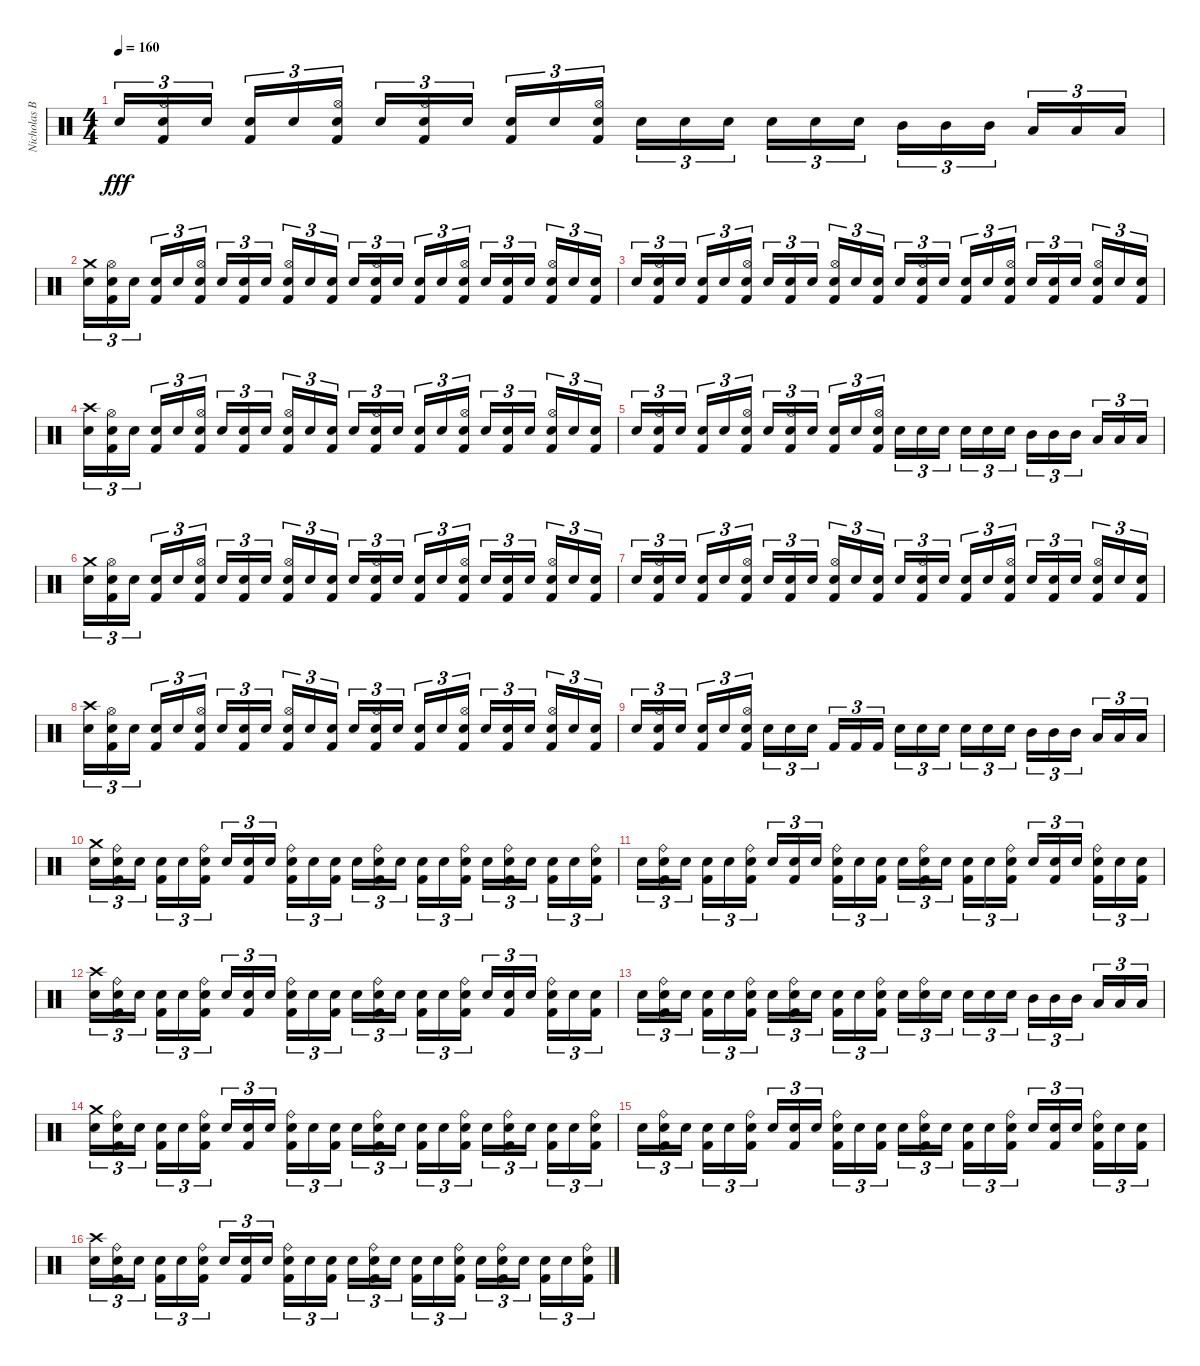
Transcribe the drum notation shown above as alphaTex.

\track ("Nicholas Barker" "Nicholas B") {instrument percussion}
\staff {score}
\articulation defaults
\ts (4 4)
\tempo 160
\clef neutral
\ks c "Snare (hit) 2".16{tu (3 2) dy fff}
("Hi-Hat (open)" "Snare (hit) 2" "Kick (hit) 2").16{tu (3 2)} "Snare (hit) 2".16{tu (3 2) beam splitsecondary} ("Snare (hit) 2" "Kick (hit) 2").16{tu (3 2)} "Snare (hit) 2".16{tu (3 2)} ("Hi-Hat (open)" "Snare (hit) 2" "Kick (hit) 2").16{tu (3 2)} "Snare (hit) 2".16{tu (3 2)} ("Hi-Hat (open)" "Snare (hit) 2" "Kick (hit) 2").16{tu (3 2)} "Snare (hit) 2".16{tu (3 2) beam splitsecondary} ("Snare (hit) 2" "Kick (hit) 2").16{tu (3 2)} "Snare (hit) 2".16{tu (3 2)} ("Hi-Hat (open)" "Snare (hit) 2" "Kick (hit) 2").16{tu (3 2)} "Snare (hit) 2".16{tu (3 2)} "Snare (hit) 2".16{tu (3 2)} "Snare (hit) 2".16{tu (3 2) beam splitsecondary} "Snare (hit) 2".16{tu (3 2)} "Snare (hit) 2".16{tu (3 2)} "Snare (hit) 2".16{tu (3 2)} "Mid Tom (hit)".16{tu (3 2)} "Mid Tom (hit)".16{tu (3 2)} "Mid Tom (hit)".16{tu (3 2) beam splitsecondary} "Low Tom (hit)".16{tu (3 2)} "Low Tom (hit)".16{tu (3 2)} "Low Tom (hit)".16{tu (3 2)} |
("Crash medium (hit)" "Snare (hit) 2").16{tu (3 2)} ("Hi-Hat (open)" "Snare (hit) 2" "Kick (hit) 2").16{tu (3 2)} "Snare (hit) 2".16{tu (3 2) beam splitsecondary} ("Snare (hit) 2" "Kick (hit) 2").16{tu (3 2)} "Snare (hit) 2".16{tu (3 2)} ("Hi-Hat (open)" "Snare (hit) 2" "Kick (hit) 2").16{tu (3 2)} "Snare (hit) 2".16{tu (3 2)} ("Snare (hit) 2" "Kick (hit) 2").16{tu (3 2)} "Snare (hit) 2".16{tu (3 2) beam splitsecondary} ("Hi-Hat (open)" "Snare (hit) 2" "Kick (hit) 2").16{tu (3 2)} "Snare (hit) 2".16{tu (3 2)} ("Snare (hit) 2" "Kick (hit) 2").16{tu (3 2)} "Snare (hit) 2".16{tu (3 2)} ("Hi-Hat (open)" "Snare (hit) 2" "Kick (hit) 2").16{tu (3 2)} "Snare (hit) 2".16{tu (3 2) beam splitsecondary} ("Snare (hit) 2" "Kick (hit) 2").16{tu (3 2)} "Snare (hit) 2".16{tu (3 2)} ("Hi-Hat (open)" "Snare (hit) 2" "Kick (hit) 2").16{tu (3 2)} "Snare (hit) 2".16{tu (3 2)} ("Snare (hit) 2" "Kick (hit) 2").16{tu (3 2)} "Snare (hit) 2".16{tu (3 2) beam splitsecondary} ("Hi-Hat (open)" "Snare (hit) 2" "Kick (hit) 2").16{tu (3 2)} "Snare (hit) 2".16{tu (3 2)} ("Snare (hit) 2" "Kick (hit) 2").16{tu (3 2)} |
"Snare (hit) 2".16{tu (3 2)} ("Hi-Hat (open)" "Snare (hit) 2" "Kick (hit) 2").16{tu (3 2)} "Snare (hit) 2".16{tu (3 2) beam splitsecondary} ("Snare (hit) 2" "Kick (hit) 2").16{tu (3 2)} "Snare (hit) 2".16{tu (3 2)} ("Hi-Hat (open)" "Snare (hit) 2" "Kick (hit) 2").16{tu (3 2)} "Snare (hit) 2".16{tu (3 2)} ("Snare (hit) 2" "Kick (hit) 2").16{tu (3 2)} "Snare (hit) 2".16{tu (3 2) beam splitsecondary} ("Hi-Hat (open)" "Snare (hit) 2" "Kick (hit) 2").16{tu (3 2)} "Snare (hit) 2".16{tu (3 2)} ("Snare (hit) 2" "Kick (hit) 2").16{tu (3 2)} "Snare (hit) 2".16{tu (3 2)} ("Hi-Hat (open)" "Snare (hit) 2" "Kick (hit) 2").16{tu (3 2)} "Snare (hit) 2".16{tu (3 2) beam splitsecondary} ("Snare (hit) 2" "Kick (hit) 2").16{tu (3 2)} "Snare (hit) 2".16{tu (3 2)} ("Hi-Hat (open)" "Snare (hit) 2" "Kick (hit) 2").16{tu (3 2)} "Snare (hit) 2".16{tu (3 2)} ("Snare (hit) 2" "Kick (hit) 2").16{tu (3 2)} "Snare (hit) 2".16{tu (3 2) beam splitsecondary} ("Hi-Hat (open)" "Snare (hit) 2" "Kick (hit) 2").16{tu (3 2)} "Snare (hit) 2".16{tu (3 2)} ("Snare (hit) 2" "Kick (hit) 2").16{tu (3 2)} |
("Crash high (hit)" "Snare (hit) 2").16{tu (3 2)} ("Hi-Hat (open)" "Snare (hit) 2" "Kick (hit) 2").16{tu (3 2)} "Snare (hit) 2".16{tu (3 2) beam splitsecondary} ("Snare (hit) 2" "Kick (hit) 2").16{tu (3 2)} "Snare (hit) 2".16{tu (3 2)} ("Hi-Hat (open)" "Snare (hit) 2" "Kick (hit) 2").16{tu (3 2)} "Snare (hit) 2".16{tu (3 2)} ("Snare (hit) 2" "Kick (hit) 2").16{tu (3 2)} "Snare (hit) 2".16{tu (3 2) beam splitsecondary} ("Hi-Hat (open)" "Snare (hit) 2" "Kick (hit) 2").16{tu (3 2)} "Snare (hit) 2".16{tu (3 2)} ("Snare (hit) 2" "Kick (hit) 2").16{tu (3 2)} "Snare (hit) 2".16{tu (3 2)} ("Hi-Hat (open)" "Snare (hit) 2" "Kick (hit) 2").16{tu (3 2)} "Snare (hit) 2".16{tu (3 2) beam splitsecondary} ("Snare (hit) 2" "Kick (hit) 2").16{tu (3 2)} "Snare (hit) 2".16{tu (3 2)} ("Hi-Hat (open)" "Snare (hit) 2" "Kick (hit) 2").16{tu (3 2)} "Snare (hit) 2".16{tu (3 2)} ("Snare (hit) 2" "Kick (hit) 2").16{tu (3 2)} "Snare (hit) 2".16{tu (3 2) beam splitsecondary} ("Hi-Hat (open)" "Snare (hit) 2" "Kick (hit) 2").16{tu (3 2)} "Snare (hit) 2".16{tu (3 2)} ("Snare (hit) 2" "Kick (hit) 2").16{tu (3 2)} |
"Snare (hit) 2".16{tu (3 2)} ("Hi-Hat (open)" "Snare (hit) 2" "Kick (hit) 2").16{tu (3 2)} "Snare (hit) 2".16{tu (3 2) beam splitsecondary} ("Snare (hit) 2" "Kick (hit) 2").16{tu (3 2)} "Snare (hit) 2".16{tu (3 2)} ("Hi-Hat (open)" "Snare (hit) 2" "Kick (hit) 2").16{tu (3 2)} "Snare (hit) 2".16{tu (3 2)} ("Hi-Hat (open)" "Snare (hit) 2" "Kick (hit) 2").16{tu (3 2)} "Snare (hit) 2".16{tu (3 2) beam splitsecondary} ("Snare (hit) 2" "Kick (hit) 2").16{tu (3 2)} "Snare (hit) 2".16{tu (3 2)} ("Hi-Hat (open)" "Snare (hit) 2" "Kick (hit) 2").16{tu (3 2)} "Snare (hit) 2".16{tu (3 2)} "Snare (hit) 2".16{tu (3 2)} "Snare (hit) 2".16{tu (3 2) beam splitsecondary} "Snare (hit) 2".16{tu (3 2)} "Snare (hit) 2".16{tu (3 2)} "Snare (hit) 2".16{tu (3 2)} "Mid Tom (hit)".16{tu (3 2)} "Mid Tom (hit)".16{tu (3 2)} "Mid Tom (hit)".16{tu (3 2) beam splitsecondary} "Low Tom (hit)".16{tu (3 2)} "Low Tom (hit)".16{tu (3 2)} "Low Tom (hit)".16{tu (3 2)} |
("Crash medium (hit)" "Snare (hit) 2").16{tu (3 2)} ("Hi-Hat (open)" "Snare (hit) 2" "Kick (hit) 2").16{tu (3 2)} "Snare (hit) 2".16{tu (3 2) beam splitsecondary} ("Snare (hit) 2" "Kick (hit) 2").16{tu (3 2)} "Snare (hit) 2".16{tu (3 2)} ("Hi-Hat (open)" "Snare (hit) 2" "Kick (hit) 2").16{tu (3 2)} "Snare (hit) 2".16{tu (3 2)} ("Snare (hit) 2" "Kick (hit) 2").16{tu (3 2)} "Snare (hit) 2".16{tu (3 2) beam splitsecondary} ("Hi-Hat (open)" "Snare (hit) 2" "Kick (hit) 2").16{tu (3 2)} "Snare (hit) 2".16{tu (3 2)} ("Snare (hit) 2" "Kick (hit) 2").16{tu (3 2)} "Snare (hit) 2".16{tu (3 2)} ("Hi-Hat (open)" "Snare (hit) 2" "Kick (hit) 2").16{tu (3 2)} "Snare (hit) 2".16{tu (3 2) beam splitsecondary} ("Snare (hit) 2" "Kick (hit) 2").16{tu (3 2)} "Snare (hit) 2".16{tu (3 2)} ("Hi-Hat (open)" "Snare (hit) 2" "Kick (hit) 2").16{tu (3 2)} "Snare (hit) 2".16{tu (3 2)} ("Snare (hit) 2" "Kick (hit) 2").16{tu (3 2)} "Snare (hit) 2".16{tu (3 2) beam splitsecondary} ("Hi-Hat (open)" "Snare (hit) 2" "Kick (hit) 2").16{tu (3 2)} "Snare (hit) 2".16{tu (3 2)} ("Snare (hit) 2" "Kick (hit) 2").16{tu (3 2)} |
"Snare (hit) 2".16{tu (3 2)} ("Hi-Hat (open)" "Snare (hit) 2" "Kick (hit) 2").16{tu (3 2)} "Snare (hit) 2".16{tu (3 2) beam splitsecondary} ("Snare (hit) 2" "Kick (hit) 2").16{tu (3 2)} "Snare (hit) 2".16{tu (3 2)} ("Hi-Hat (open)" "Snare (hit) 2" "Kick (hit) 2").16{tu (3 2)} "Snare (hit) 2".16{tu (3 2)} ("Snare (hit) 2" "Kick (hit) 2").16{tu (3 2)} "Snare (hit) 2".16{tu (3 2) beam splitsecondary} ("Hi-Hat (open)" "Snare (hit) 2" "Kick (hit) 2").16{tu (3 2)} "Snare (hit) 2".16{tu (3 2)} ("Snare (hit) 2" "Kick (hit) 2").16{tu (3 2)} "Snare (hit) 2".16{tu (3 2)} ("Hi-Hat (open)" "Snare (hit) 2" "Kick (hit) 2").16{tu (3 2)} "Snare (hit) 2".16{tu (3 2) beam splitsecondary} ("Snare (hit) 2" "Kick (hit) 2").16{tu (3 2)} "Snare (hit) 2".16{tu (3 2)} ("Hi-Hat (open)" "Snare (hit) 2" "Kick (hit) 2").16{tu (3 2)} "Snare (hit) 2".16{tu (3 2)} ("Snare (hit) 2" "Kick (hit) 2").16{tu (3 2)} "Snare (hit) 2".16{tu (3 2) beam splitsecondary} ("Hi-Hat (open)" "Snare (hit) 2" "Kick (hit) 2").16{tu (3 2)} "Snare (hit) 2".16{tu (3 2)} ("Snare (hit) 2" "Kick (hit) 2").16{tu (3 2)} |
("Crash high (hit)" "Snare (hit) 2").16{tu (3 2)} ("Hi-Hat (open)" "Snare (hit) 2" "Kick (hit) 2").16{tu (3 2)} "Snare (hit) 2".16{tu (3 2) beam splitsecondary} ("Snare (hit) 2" "Kick (hit) 2").16{tu (3 2)} "Snare (hit) 2".16{tu (3 2)} ("Hi-Hat (open)" "Snare (hit) 2" "Kick (hit) 2").16{tu (3 2)} "Snare (hit) 2".16{tu (3 2)} ("Snare (hit) 2" "Kick (hit) 2").16{tu (3 2)} "Snare (hit) 2".16{tu (3 2) beam splitsecondary} ("Hi-Hat (open)" "Snare (hit) 2" "Kick (hit) 2").16{tu (3 2)} "Snare (hit) 2".16{tu (3 2)} ("Snare (hit) 2" "Kick (hit) 2").16{tu (3 2)} "Snare (hit) 2".16{tu (3 2)} ("Hi-Hat (open)" "Snare (hit) 2" "Kick (hit) 2").16{tu (3 2)} "Snare (hit) 2".16{tu (3 2) beam splitsecondary} ("Snare (hit) 2" "Kick (hit) 2").16{tu (3 2)} "Snare (hit) 2".16{tu (3 2)} ("Hi-Hat (open)" "Snare (hit) 2" "Kick (hit) 2").16{tu (3 2)} "Snare (hit) 2".16{tu (3 2)} ("Snare (hit) 2" "Kick (hit) 2").16{tu (3 2)} "Snare (hit) 2".16{tu (3 2) beam splitsecondary} ("Hi-Hat (open)" "Snare (hit) 2" "Kick (hit) 2").16{tu (3 2)} "Snare (hit) 2".16{tu (3 2)} ("Snare (hit) 2" "Kick (hit) 2").16{tu (3 2)} |
"Snare (hit) 2".16{tu (3 2)} ("Hi-Hat (open)" "Snare (hit) 2" "Kick (hit) 2").16{tu (3 2)} "Snare (hit) 2".16{tu (3 2) beam splitsecondary} ("Snare (hit) 2" "Kick (hit) 2").16{tu (3 2)} "Snare (hit) 2".16{tu (3 2)} ("Hi-Hat (open)" "Snare (hit) 2" "Kick (hit) 2").16{tu (3 2)} "Snare (hit) 2".16{tu (3 2)} "Snare (hit) 2".16{tu (3 2)} "Snare (hit) 2".16{tu (3 2) beam splitsecondary} "Kick (hit) 2".16{tu (3 2)} "Kick (hit) 2".16{tu (3 2)} "Kick (hit) 2".16{tu (3 2)} "Snare (hit) 2".16{tu (3 2)} "Snare (hit) 2".16{tu (3 2)} "Snare (hit) 2".16{tu (3 2) beam splitsecondary} "Snare (hit) 2".16{tu (3 2)} "Snare (hit) 2".16{tu (3 2)} "Snare (hit) 2".16{tu (3 2)} "Mid Tom (hit)".16{tu (3 2)} "Mid Tom (hit)".16{tu (3 2)} "Mid Tom (hit)".16{tu (3 2) beam splitsecondary} "Low Tom (hit)".16{tu (3 2)} "Low Tom (hit)".16{tu (3 2)} "Low Tom (hit)".16{tu (3 2)} |
("Crash medium (hit)" "Snare (hit) 2").16{tu (3 2)} ("Ride (bell)" "Snare (hit) 2" "Kick (hit) 2").16{tu (3 2)} "Snare (hit) 2".16{tu (3 2) beam splitsecondary} ("Snare (hit) 2" "Kick (hit) 2").16{tu (3 2)} "Snare (hit) 2".16{tu (3 2)} ("Ride (bell)" "Snare (hit) 2" "Kick (hit) 2").16{tu (3 2)} "Snare (hit) 2".16{tu (3 2)} ("Snare (hit) 2" "Kick (hit) 2").16{tu (3 2)} "Snare (hit) 2".16{tu (3 2) beam splitsecondary} ("Ride (bell)" "Snare (hit) 2" "Kick (hit) 2").16{tu (3 2)} "Snare (hit) 2".16{tu (3 2)} ("Snare (hit) 2" "Kick (hit) 2").16{tu (3 2)} "Snare (hit) 2".16{tu (3 2)} ("Ride (bell)" "Snare (hit) 2" "Kick (hit) 2").16{tu (3 2)} "Snare (hit) 2".16{tu (3 2) beam splitsecondary} ("Snare (hit) 2" "Kick (hit) 2").16{tu (3 2)} "Snare (hit) 2".16{tu (3 2)} ("Ride (bell)" "Snare (hit) 2" "Kick (hit) 2").16{tu (3 2)} "Snare (hit) 2".16{tu (3 2)} ("Ride (bell)" "Snare (hit) 2" "Kick (hit) 2").16{tu (3 2)} "Snare (hit) 2".16{tu (3 2) beam splitsecondary} ("Snare (hit) 2" "Kick (hit) 2").16{tu (3 2)} "Snare (hit) 2".16{tu (3 2)} ("Ride (bell)" "Snare (hit) 2" "Kick (hit) 2").16{tu (3 2)} |
"Snare (hit) 2".16{tu (3 2)} ("Ride (bell)" "Snare (hit) 2" "Kick (hit) 2").16{tu (3 2)} "Snare (hit) 2".16{tu (3 2) beam splitsecondary} ("Snare (hit) 2" "Kick (hit) 2").16{tu (3 2)} "Snare (hit) 2".16{tu (3 2)} ("Ride (bell)" "Snare (hit) 2" "Kick (hit) 2").16{tu (3 2)} "Snare (hit) 2".16{tu (3 2)} ("Snare (hit) 2" "Kick (hit) 2").16{tu (3 2)} "Snare (hit) 2".16{tu (3 2) beam splitsecondary} ("Ride (bell)" "Snare (hit) 2" "Kick (hit) 2").16{tu (3 2)} "Snare (hit) 2".16{tu (3 2)} ("Snare (hit) 2" "Kick (hit) 2").16{tu (3 2)} "Snare (hit) 2".16{tu (3 2)} ("Ride (bell)" "Snare (hit) 2" "Kick (hit) 2").16{tu (3 2)} "Snare (hit) 2".16{tu (3 2) beam splitsecondary} ("Snare (hit) 2" "Kick (hit) 2").16{tu (3 2)} "Snare (hit) 2".16{tu (3 2)} ("Ride (bell)" "Snare (hit) 2" "Kick (hit) 2").16{tu (3 2)} "Snare (hit) 2".16{tu (3 2)} ("Snare (hit) 2" "Kick (hit) 2").16{tu (3 2)} "Snare (hit) 2".16{tu (3 2) beam splitsecondary} ("Ride (bell)" "Snare (hit) 2" "Kick (hit) 2").16{tu (3 2)} "Snare (hit) 2".16{tu (3 2)} ("Snare (hit) 2" "Kick (hit) 2").16{tu (3 2)} |
("Crash high (hit)" "Snare (hit) 2").16{tu (3 2)} ("Ride (bell)" "Snare (hit) 2" "Kick (hit) 2").16{tu (3 2)} "Snare (hit) 2".16{tu (3 2) beam splitsecondary} ("Snare (hit) 2" "Kick (hit) 2").16{tu (3 2)} "Snare (hit) 2".16{tu (3 2)} ("Ride (bell)" "Snare (hit) 2" "Kick (hit) 2").16{tu (3 2)} "Snare (hit) 2".16{tu (3 2)} ("Snare (hit) 2" "Kick (hit) 2").16{tu (3 2)} "Snare (hit) 2".16{tu (3 2) beam splitsecondary} ("Ride (bell)" "Snare (hit) 2" "Kick (hit) 2").16{tu (3 2)} "Snare (hit) 2".16{tu (3 2)} ("Snare (hit) 2" "Kick (hit) 2").16{tu (3 2)} "Snare (hit) 2".16{tu (3 2)} ("Ride (bell)" "Snare (hit) 2" "Kick (hit) 2").16{tu (3 2)} "Snare (hit) 2".16{tu (3 2) beam splitsecondary} ("Snare (hit) 2" "Kick (hit) 2").16{tu (3 2)} "Snare (hit) 2".16{tu (3 2)} ("Ride (bell)" "Snare (hit) 2" "Kick (hit) 2").16{tu (3 2)} "Snare (hit) 2".16{tu (3 2)} ("Snare (hit) 2" "Kick (hit) 2").16{tu (3 2)} "Snare (hit) 2".16{tu (3 2) beam splitsecondary} ("Ride (bell)" "Snare (hit) 2" "Kick (hit) 2").16{tu (3 2)} "Snare (hit) 2".16{tu (3 2)} ("Snare (hit) 2" "Kick (hit) 2").16{tu (3 2)} |
"Snare (hit) 2".16{tu (3 2)} ("Ride (bell)" "Snare (hit) 2" "Kick (hit) 2").16{tu (3 2)} "Snare (hit) 2".16{tu (3 2) beam splitsecondary} ("Snare (hit) 2" "Kick (hit) 2").16{tu (3 2)} "Snare (hit) 2".16{tu (3 2)} ("Ride (bell)" "Snare (hit) 2" "Kick (hit) 2").16{tu (3 2)} "Snare (hit) 2".16{tu (3 2)} ("Ride (bell)" "Snare (hit) 2" "Kick (hit) 2").16{tu (3 2)} "Snare (hit) 2".16{tu (3 2) beam splitsecondary} ("Snare (hit) 2" "Kick (hit) 2").16{tu (3 2)} "Snare (hit) 2".16{tu (3 2)} ("Ride (bell)" "Snare (hit) 2" "Kick (hit) 2").16{tu (3 2)} "Snare (hit) 2".16{tu (3 2)} ("Ride (bell)" "Snare (hit) 2").16{tu (3 2)} "Snare (hit) 2".16{tu (3 2) beam splitsecondary} "Snare (hit) 2".16{tu (3 2)} "Snare (hit) 2".16{tu (3 2)} "Snare (hit) 2".16{tu (3 2)} "Mid Tom (hit)".16{tu (3 2)} "Mid Tom (hit)".16{tu (3 2)} "Mid Tom (hit)".16{tu (3 2) beam splitsecondary} "Low Tom (hit)".16{tu (3 2)} "Low Tom (hit)".16{tu (3 2)} "Low Tom (hit)".16{tu (3 2)} |
("Crash medium (hit)" "Snare (hit) 2").16{tu (3 2)} ("Ride (bell)" "Snare (hit) 2" "Kick (hit) 2").16{tu (3 2)} "Snare (hit) 2".16{tu (3 2) beam splitsecondary} ("Snare (hit) 2" "Kick (hit) 2").16{tu (3 2)} "Snare (hit) 2".16{tu (3 2)} ("Ride (bell)" "Snare (hit) 2" "Kick (hit) 2").16{tu (3 2)} "Snare (hit) 2".16{tu (3 2)} ("Snare (hit) 2" "Kick (hit) 2").16{tu (3 2)} "Snare (hit) 2".16{tu (3 2) beam splitsecondary} ("Ride (bell)" "Snare (hit) 2" "Kick (hit) 2").16{tu (3 2)} "Snare (hit) 2".16{tu (3 2)} ("Snare (hit) 2" "Kick (hit) 2").16{tu (3 2)} "Snare (hit) 2".16{tu (3 2)} ("Ride (bell)" "Snare (hit) 2" "Kick (hit) 2").16{tu (3 2)} "Snare (hit) 2".16{tu (3 2) beam splitsecondary} ("Snare (hit) 2" "Kick (hit) 2").16{tu (3 2)} "Snare (hit) 2".16{tu (3 2)} ("Ride (bell)" "Snare (hit) 2" "Kick (hit) 2").16{tu (3 2)} "Snare (hit) 2".16{tu (3 2)} ("Ride (bell)" "Snare (hit) 2" "Kick (hit) 2").16{tu (3 2)} "Snare (hit) 2".16{tu (3 2) beam splitsecondary} ("Snare (hit) 2" "Kick (hit) 2").16{tu (3 2)} "Snare (hit) 2".16{tu (3 2)} ("Ride (bell)" "Snare (hit) 2" "Kick (hit) 2").16{tu (3 2)} |
"Snare (hit) 2".16{tu (3 2)} ("Ride (bell)" "Snare (hit) 2" "Kick (hit) 2").16{tu (3 2)} "Snare (hit) 2".16{tu (3 2) beam splitsecondary} ("Snare (hit) 2" "Kick (hit) 2").16{tu (3 2)} "Snare (hit) 2".16{tu (3 2)} ("Ride (bell)" "Snare (hit) 2" "Kick (hit) 2").16{tu (3 2)} "Snare (hit) 2".16{tu (3 2)} ("Snare (hit) 2" "Kick (hit) 2").16{tu (3 2)} "Snare (hit) 2".16{tu (3 2) beam splitsecondary} ("Ride (bell)" "Snare (hit) 2" "Kick (hit) 2").16{tu (3 2)} "Snare (hit) 2".16{tu (3 2)} ("Snare (hit) 2" "Kick (hit) 2").16{tu (3 2)} "Snare (hit) 2".16{tu (3 2)} ("Ride (bell)" "Snare (hit) 2" "Kick (hit) 2").16{tu (3 2)} "Snare (hit) 2".16{tu (3 2) beam splitsecondary} ("Snare (hit) 2" "Kick (hit) 2").16{tu (3 2)} "Snare (hit) 2".16{tu (3 2)} ("Ride (bell)" "Snare (hit) 2" "Kick (hit) 2").16{tu (3 2)} "Snare (hit) 2".16{tu (3 2)} ("Snare (hit) 2" "Kick (hit) 2").16{tu (3 2)} "Snare (hit) 2".16{tu (3 2) beam splitsecondary} ("Ride (bell)" "Snare (hit) 2" "Kick (hit) 2").16{tu (3 2)} "Snare (hit) 2".16{tu (3 2)} ("Snare (hit) 2" "Kick (hit) 2").16{tu (3 2)} |
("Crash high (hit)" "Snare (hit) 2").16{tu (3 2)} ("Ride (bell)" "Snare (hit) 2" "Kick (hit) 2").16{tu (3 2)} "Snare (hit) 2".16{tu (3 2) beam splitsecondary} ("Snare (hit) 2" "Kick (hit) 2").16{tu (3 2)} "Snare (hit) 2".16{tu (3 2)} ("Ride (bell)" "Snare (hit) 2" "Kick (hit) 2").16{tu (3 2)} "Snare (hit) 2".16{tu (3 2)} ("Snare (hit) 2" "Kick (hit) 2").16{tu (3 2)} "Snare (hit) 2".16{tu (3 2) beam splitsecondary} ("Ride (bell)" "Snare (hit) 2" "Kick (hit) 2").16{tu (3 2)} "Snare (hit) 2".16{tu (3 2)} ("Snare (hit) 2" "Kick (hit) 2").16{tu (3 2)} "Snare (hit) 2".16{tu (3 2)} ("Ride (bell)" "Snare (hit) 2" "Kick (hit) 2").16{tu (3 2)} "Snare (hit) 2".16{tu (3 2) beam splitsecondary} ("Snare (hit) 2" "Kick (hit) 2").16{tu (3 2)} "Snare (hit) 2".16{tu (3 2)} ("Ride (bell)" "Snare (hit) 2" "Kick (hit) 2").16{tu (3 2)} "Snare (hit) 2".16{tu (3 2)} ("Ride (bell)" "Snare (hit) 2" "Kick (hit) 2").16{tu (3 2)} "Snare (hit) 2".16{tu (3 2) beam splitsecondary} ("Snare (hit) 2" "Kick (hit) 2").16{tu (3 2)} "Snare (hit) 2".16{tu (3 2)} ("Ride (bell)" "Snare (hit) 2" "Kick (hit) 2").16{tu (3 2)}
